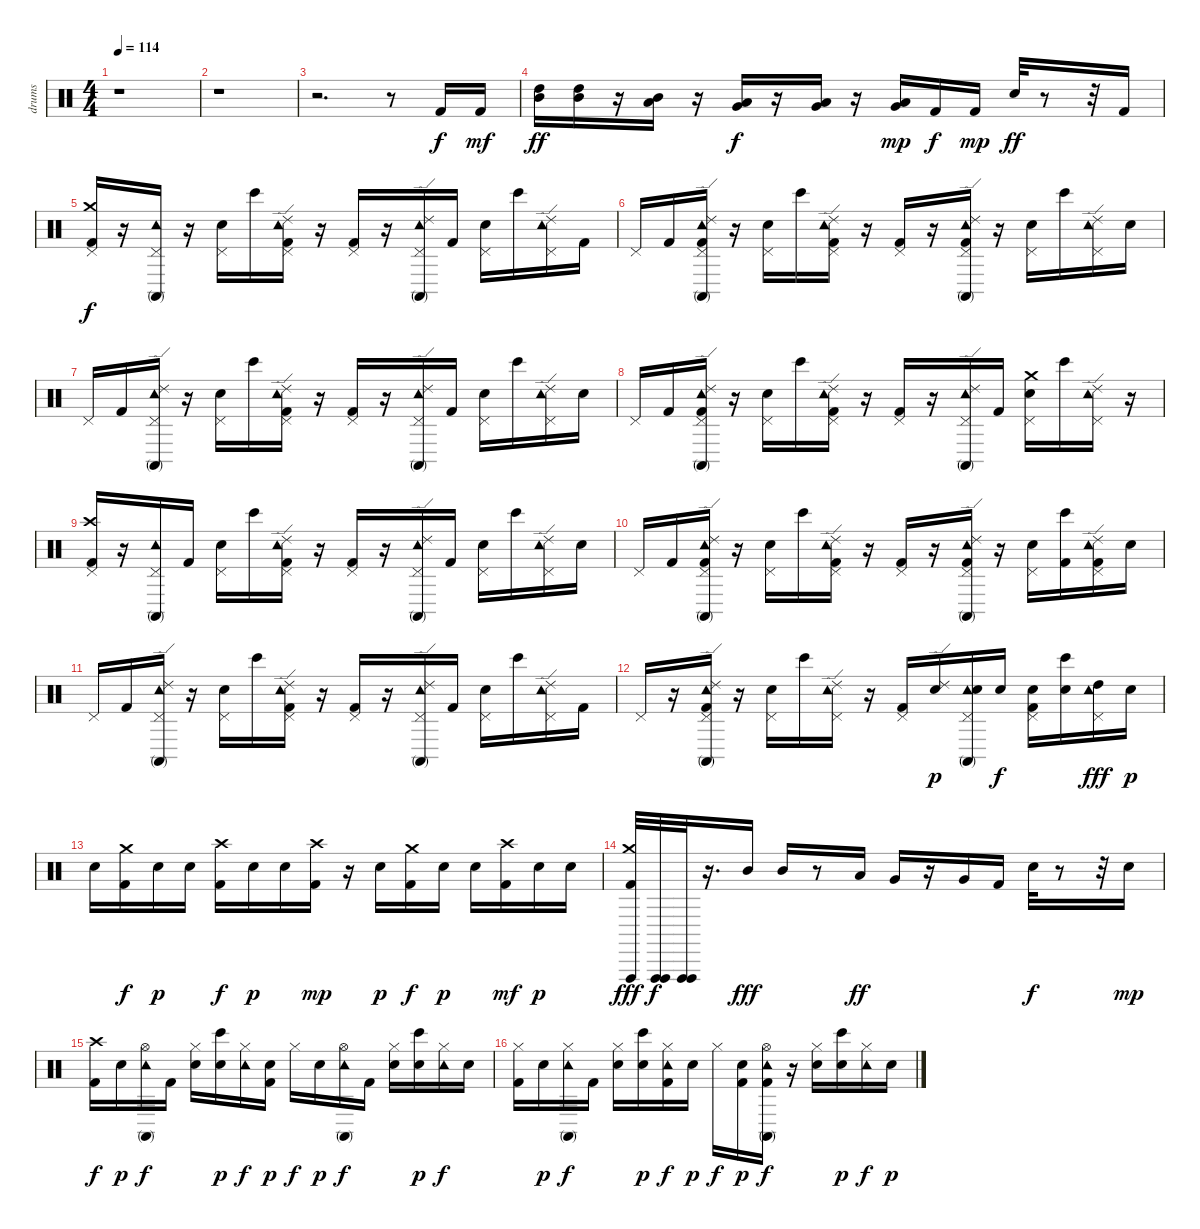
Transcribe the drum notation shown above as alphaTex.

\track ("drums" "drums") {instrument percussion}
\staff {score}
\articulation defaults
\ts (4 4)
\tempo 114
\clef neutral
\ks c
r.1{dy f} |
r.1 |
r.2{d} r.8 "Kick (hit) 2".16 "Kick (hit) 2".16{dy mf} |
("Mid Tom (hit)" "High Tom (hit)").16{dy ff} ("Mid Tom (hit)" "High Tom (hit)").16 r.16 ("Low Tom (hit)" "Mid Tom (hit)").16 r.16 ("Very Low Tom (hit)" "Low Tom (hit)").16{dy f} r.16 ("Low Tom (hit)" "Very Low Tom (hit)").16 r.16 ("Low Tom (hit)" "Very Low Tom (hit)").16{dy mp} "Kick (hit) 2".16{dy f} "Kick (hit) 2".16{dy mp} "Electric Snare (hit)".32{dy ff} r.8 r.32 "Kick (hit) 2".16 |
("Pedal Hi-Hat (hit)" "Kick (hit) 2" "Crash medium (hit)").16{dy f} r.16 ("Pedal Hi-Hat (hit)" "Tambourine (hit)" "Conga high (mute)").16 r.16 ("Pedal Hi-Hat (hit)" "Electric Snare (hit)").16 "Bongo High (hit)".16 ("Pedal Hi-Hat (hit)" "Ride (edge) 2" "Kick (hit) 2" "Tambourine (hit)").16 r.16 ("Pedal Hi-Hat (hit)" "Kick (hit) 2").16 r.16 ("Pedal Hi-Hat (hit)" "Conga high (mute)" "Ride (edge) 2" "Tambourine (hit)").16 "Kick (hit) 2".16 ("Pedal Hi-Hat (hit)" "Electric Snare (hit)").16 "Bongo High (hit)".16 ("Pedal Hi-Hat (hit)" "Ride (edge) 2" "Tambourine (hit)").16 "Kick (hit) 2".16 |
"Pedal Hi-Hat (hit)".16 "Kick (hit) 2".16 ("Pedal Hi-Hat (hit)" "Ride (edge) 2" "Tambourine (hit)" "Conga high (mute)" "Kick (hit) 2").16 r.16 ("Pedal Hi-Hat (hit)" "Electric Snare (hit)").16 "Bongo High (hit)".16 ("Pedal Hi-Hat (hit)" "Kick (hit) 2" "Ride (edge) 2" "Tambourine (hit)").16 r.16 ("Pedal Hi-Hat (hit)" "Kick (hit) 2").16 r.16 ("Pedal Hi-Hat (hit)" "Tambourine (hit)" "Kick (hit) 2" "Ride (edge) 2" "Conga high (mute)").16 r.16 ("Pedal Hi-Hat (hit)" "Electric Snare (hit)").16 "Bongo High (hit)".16 ("Pedal Hi-Hat (hit)" "Tambourine (hit)" "Ride (edge) 2").16 "Electric Snare (hit)".16 |
"Pedal Hi-Hat (hit)".16 "Kick (hit) 2".16 ("Pedal Hi-Hat (hit)" "Conga high (mute)" "Ride (edge) 2" "Tambourine (hit)").16 r.16 ("Pedal Hi-Hat (hit)" "Electric Snare (hit)").16 "Bongo High (hit)".16 ("Pedal Hi-Hat (hit)" "Ride (edge) 2" "Tambourine (hit)" "Kick (hit) 2").16 r.16 ("Pedal Hi-Hat (hit)" "Kick (hit) 2").16 r.16 ("Pedal Hi-Hat (hit)" "Conga high (mute)" "Tambourine (hit)" "Ride (edge) 2").16 "Kick (hit) 2".16 ("Pedal Hi-Hat (hit)" "Electric Snare (hit)").16 "Bongo High (hit)".16 ("Pedal Hi-Hat (hit)" "Ride (edge) 2" "Tambourine (hit)").16 "Electric Snare (hit)".16 |
"Pedal Hi-Hat (hit)".16 "Kick (hit) 2".16 ("Pedal Hi-Hat (hit)" "Kick (hit) 2" "Tambourine (hit)" "Conga high (mute)" "Ride (edge) 2").16 r.16 ("Pedal Hi-Hat (hit)" "Electric Snare (hit)").16 "Bongo High (hit)".16 ("Pedal Hi-Hat (hit)" "Ride (edge) 2" "Kick (hit) 2" "Tambourine (hit)").16 r.16 ("Pedal Hi-Hat (hit)" "Kick (hit) 2").16 r.16 ("Pedal Hi-Hat (hit)" "Tambourine (hit)" "Ride (edge) 2" "Conga high (mute)").16 "Kick (hit) 2".16 ("Pedal Hi-Hat (hit)" "Electric Snare (hit)" "Crash medium (hit)").16 "Bongo High (hit)".16 ("Pedal Hi-Hat (hit)" "Ride (edge) 2" "Tambourine (hit)").16 r.16 |
("Pedal Hi-Hat (hit)" "Crash high (hit)" "Kick (hit) 2").16 r.16 ("Pedal Hi-Hat (hit)" "Conga high (mute)" "Tambourine (hit)").16 "Kick (hit) 2".16 ("Pedal Hi-Hat (hit)" "Electric Snare (hit)").16 "Bongo High (hit)".16 ("Pedal Hi-Hat (hit)" "Tambourine (hit)" "Ride (edge) 2" "Kick (hit) 2").16 r.16 ("Pedal Hi-Hat (hit)" "Kick (hit) 2").16 r.16 ("Pedal Hi-Hat (hit)" "Tambourine (hit)" "Ride (edge) 2" "Conga high (mute)").16 "Kick (hit) 2".16 ("Pedal Hi-Hat (hit)" "Electric Snare (hit)").16 "Bongo High (hit)".16 ("Pedal Hi-Hat (hit)" "Ride (edge) 2" "Tambourine (hit)").16 "Electric Snare (hit)".16 |
"Pedal Hi-Hat (hit)".16 "Kick (hit) 2".16 ("Pedal Hi-Hat (hit)" "Ride (edge) 2" "Tambourine (hit)" "Kick (hit) 2" "Conga high (mute)").16 r.16 ("Pedal Hi-Hat (hit)" "Electric Snare (hit)").16 "Bongo High (hit)".16 ("Pedal Hi-Hat (hit)" "Tambourine (hit)" "Ride (edge) 2" "Kick (hit) 2").16 r.16 ("Pedal Hi-Hat (hit)" "Kick (hit) 2").16 r.16 ("Pedal Hi-Hat (hit)" "Conga high (mute)" "Tambourine (hit)" "Kick (hit) 2" "Ride (edge) 2").16 r.16 ("Pedal Hi-Hat (hit)" "Electric Snare (hit)").16 ("Kick (hit) 2" "Bongo High (hit)").16 ("Pedal Hi-Hat (hit)" "Kick (hit) 2" "Ride (edge) 2" "Tambourine (hit)").16 "Electric Snare (hit)".16 |
"Pedal Hi-Hat (hit)".16 "Kick (hit) 2".16 ("Pedal Hi-Hat (hit)" "Ride (edge) 2" "Conga high (mute)" "Tambourine (hit)").16 r.16 ("Pedal Hi-Hat (hit)" "Electric Snare (hit)").16 "Bongo High (hit)".16 ("Pedal Hi-Hat (hit)" "Ride (edge) 2" "Kick (hit) 2" "Tambourine (hit)").16 r.16 ("Pedal Hi-Hat (hit)" "Kick (hit) 2").16 r.16 ("Pedal Hi-Hat (hit)" "Ride (edge) 2" "Conga high (mute)" "Tambourine (hit)").16 "Kick (hit) 2".16 ("Pedal Hi-Hat (hit)" "Electric Snare (hit)").16 "Bongo High (hit)".16 ("Pedal Hi-Hat (hit)" "Ride (edge) 2" "Tambourine (hit)").16 "Kick (hit) 2".16 |
"Pedal Hi-Hat (hit)".16 r.16 ("Pedal Hi-Hat (hit)" "Ride (edge) 2" "Tambourine (hit)" "Kick (hit) 2" "Conga high (mute)").16 r.16 ("Pedal Hi-Hat (hit)" "Electric Snare (hit)").16 "Bongo High (hit)".16 ("Pedal Hi-Hat (hit)" "Ride (edge) 2" "Tambourine (hit)").16 r.16 ("Pedal Hi-Hat (hit)" "Kick (hit) 2").16 ("Electric Snare (hit)" "Ride (edge) 2").16{dy p} ("Pedal Hi-Hat (hit)" "Conga high (mute)" "Tambourine (hit)" "Electric Snare (hit)").16 "Electric Snare (hit)".16{dy f} ("Pedal Hi-Hat (hit)" "Electric Snare (hit)" "Kick (hit) 2").16 ("Electric Snare (hit)" "Bongo High (hit)").16 ("Pedal Hi-Hat (hit)" "High Tom (hit)" "Tambourine (hit)").16{dy fff} "Electric Snare (hit)".16{dy p} |
"Electric Snare (hit)".16 ("Crash medium (hit)" "Kick (hit) 2").16{dy f} "Electric Snare (hit)".16{dy p} "Electric Snare (hit)".16 ("Kick (hit) 2" "Crash high (hit)").16{dy f} "Electric Snare (hit)".16{dy p} "Electric Snare (hit)".16 ("Crash high (hit)" "Kick (hit) 2").16{dy mp} r.16 "Electric Snare (hit)".16{dy p} ("Crash medium (hit)" "Kick (hit) 2").16{dy f} "Electric Snare (hit)".16{dy p} "Electric Snare (hit)".16 ("Kick (hit) 2" "Crash high (hit)").16{dy mf} "Electric Snare (hit)".16{dy p} "Electric Snare (hit)".16 |
("Kick (hit) 2" "Vibraslap (hit)" "Crash medium (hit)").32{dy fff} ("Vibraslap (hit)" "Vibraslap (hit)").32{dy f} ("Vibraslap (hit)" "Vibraslap (hit)").32 r.16{d} "Mid Tom (hit)".16{dy fff} "Mid Tom (hit)".16 r.8 "Low Tom (hit)".16{dy ff} "Very Low Tom (hit)".16 r.16 "Very Low Tom (hit)".16 "Kick (hit) 2".16 "Electric Snare (hit)".32{dy f} r.8 r.32 "Electric Snare (hit)".16{dy mp} |
("Kick (hit) 2" "Crash high (hit)").16{dy f} "Electric Snare (hit)".16{dy p} ("Hi-Hat (open)" "Tambourine (hit)" "Conga high (mute)").16{dy f} "Kick (hit) 2".16 ("Electric Snare (hit)" "Hi-Hat (closed)").16 ("Electric Snare (hit)" "Bongo High (hit)").16{dy p} ("Hi-Hat (closed)" "Tambourine (hit)").16{dy f} ("Electric Snare (hit)" "Kick (hit) 2").16{dy p} "Hi-Hat (closed)".16{dy f} "Electric Snare (hit)".16{dy p} ("Hi-Hat (open)" "Tambourine (hit)" "Conga high (mute)").16{dy f} "Kick (hit) 2".16 ("Hi-Hat (closed)" "Electric Snare (hit)").16 ("Electric Snare (hit)" "Bongo High (hit)").16{dy p} ("Tambourine (hit)" "Hi-Hat (closed)").16{dy f} "Electric Snare (hit)".16 |
("Hi-Hat (closed)" "Kick (hit) 2").16 "Electric Snare (hit)".16{dy p} ("Hi-Hat (closed)" "Tambourine (hit)" "Conga high (mute)").16{dy f} "Kick (hit) 2".16 ("Electric Snare (hit)" "Hi-Hat (closed)").16 ("Electric Snare (hit)" "Bongo High (hit)").16{dy p} ("Kick (hit) 2" "Hi-Hat (closed)" "Tambourine (hit)").16{dy f} "Electric Snare (hit)".16{dy p} "Hi-Hat (closed)".16{dy f} ("Electric Snare (hit)" "Kick (hit) 2").16{dy p} ("Kick (hit) 2" "Hi-Hat (open)" "Tambourine (hit)" "Conga high (mute)").16{dy f} r.16 ("Electric Snare (hit)" "Hi-Hat (closed)").16 ("Electric Snare (hit)" "Bongo High (hit)").16{dy p} ("Hi-Hat (closed)" "Tambourine (hit)").16{dy f} "Electric Snare (hit)".16{dy p}
